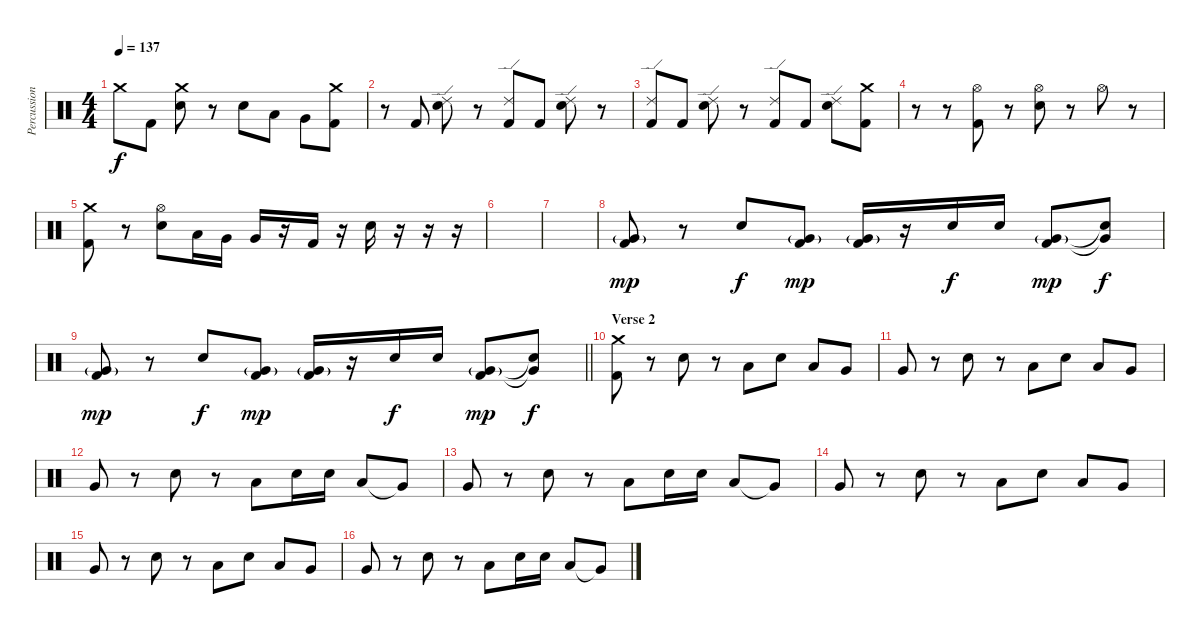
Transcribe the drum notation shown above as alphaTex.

\track ("Percussion" "Percussion") {instrument percussion}
\staff {score}
\articulation defaults
\ts (4 4)
\tempo 137
\clef neutral
\ks c "Crash medium (hit)".8{dy f} "Kick (hit) 2".8
("Crash medium (hit)" "Electric Snare (hit)").8 r.8 "Electric Snare (hit)".8 "Low Tom (hit)".8 "Very Low Tom (hit)".8 ("Crash medium (hit)" "Kick (hit) 2").8 |
r.8 "Kick (hit) 2".8 ("Ride (edge) 2" "Electric Snare (hit)").8 r.8 ("Ride (edge) 2" "Kick (hit) 2").8 "Kick (hit) 2".8 ("Ride (edge) 2" "Electric Snare (hit)").8 r.8 |
("Ride (edge) 2" "Kick (hit) 2").8 "Kick (hit) 2".8 ("Ride (edge) 2" "Electric Snare (hit)").8 r.8 ("Ride (edge) 2" "Kick (hit) 2").8 "Kick (hit) 2".8 ("Ride (edge) 2" "Electric Snare (hit)").8 ("Crash medium (hit)" "Kick (hit) 2").8 |
r.8 r.8 ("Hi-Hat (open)" "Kick (hit) 2").8 r.8 ("Hi-Hat (open)" "Electric Snare (hit)").8 r.8 "Hi-Hat (open)".8 r.8 |
("Crash medium (hit)" "Kick (hit) 2").8 r.8 ("Hi-Hat (open)" "Electric Snare (hit)").8 "Low Tom (hit)".16 "Very Low Tom (hit)".16 "Very Low Tom (hit)".16 r.16 "Kick (hit) 2".16 r.16 "Electric Snare (hit)".16 r.16 r.16 r.16 |
|
|
("Very Low Tom (hit)"{g} "Kick (hit) 2").8{dy mp} r.8 "Electric Snare (hit)".8{dy f} ("Very Low Tom (hit)"{g} "Kick (hit) 2").8{dy mp} ("Very Low Tom (hit)"{g} "Kick (hit) 2").16 r.16 "Electric Snare (hit)".16{dy f} "Electric Snare (hit)".16 ("Very Low Tom (hit)"{g} "Kick (hit) 2").8{dy mp} ("Snare (hit)"{t} "Very Low Tom (hit)"{t}).8{dy f} |
\barLineRight lightlight
("Very Low Tom (hit)"{g} "Kick (hit) 2").8{dy mp} r.8 "Electric Snare (hit)".8{dy f} ("Very Low Tom (hit)"{g} "Kick (hit) 2").8{dy mp} ("Very Low Tom (hit)"{g} "Kick (hit) 2").16 r.16 "Electric Snare (hit)".16{dy f} "Electric Snare (hit)".16 ("Very Low Tom (hit)"{g} "Kick (hit) 2").8{dy mp} ("Snare (hit)"{t} "Very Low Tom (hit)"{t}).8{dy f} |
\section ("" "Verse 2")
("Crash medium (hit)" "Kick (hit) 2").8 r.8 "Electric Snare (hit)".8 r.8 "Low Tom (hit)".8 "Electric Snare (hit)".8 "Low Tom (hit)".8 "Very Low Tom (hit)".8 |
"Very Low Tom (hit)".8 r.8 "Electric Snare (hit)".8 r.8 "Low Tom (hit)".8 "Electric Snare (hit)".8 "Low Tom (hit)".8 "Very Low Tom (hit)".8 |
"Very Low Tom (hit)".8 r.8 "Electric Snare (hit)".8 r.8 "Low Tom (hit)".8 "Electric Snare (hit)".16 "Electric Snare (hit)".16 "Low Tom (hit)".8 "Very Low Tom (hit)"{t}.8 |
"Very Low Tom (hit)".8 r.8 "Electric Snare (hit)".8 r.8 "Low Tom (hit)".8 "Electric Snare (hit)".16 "Electric Snare (hit)".16 "Low Tom (hit)".8 "Very Low Tom (hit)"{t}.8 |
"Very Low Tom (hit)".8 r.8 "Electric Snare (hit)".8 r.8 "Low Tom (hit)".8 "Electric Snare (hit)".8 "Low Tom (hit)".8 "Very Low Tom (hit)".8 |
"Very Low Tom (hit)".8 r.8 "Electric Snare (hit)".8 r.8 "Low Tom (hit)".8 "Electric Snare (hit)".8 "Low Tom (hit)".8 "Very Low Tom (hit)".8 |
"Very Low Tom (hit)".8 r.8 "Electric Snare (hit)".8 r.8 "Low Tom (hit)".8 "Electric Snare (hit)".16 "Electric Snare (hit)".16 "Low Tom (hit)".8 "Very Low Tom (hit)"{t}.8
